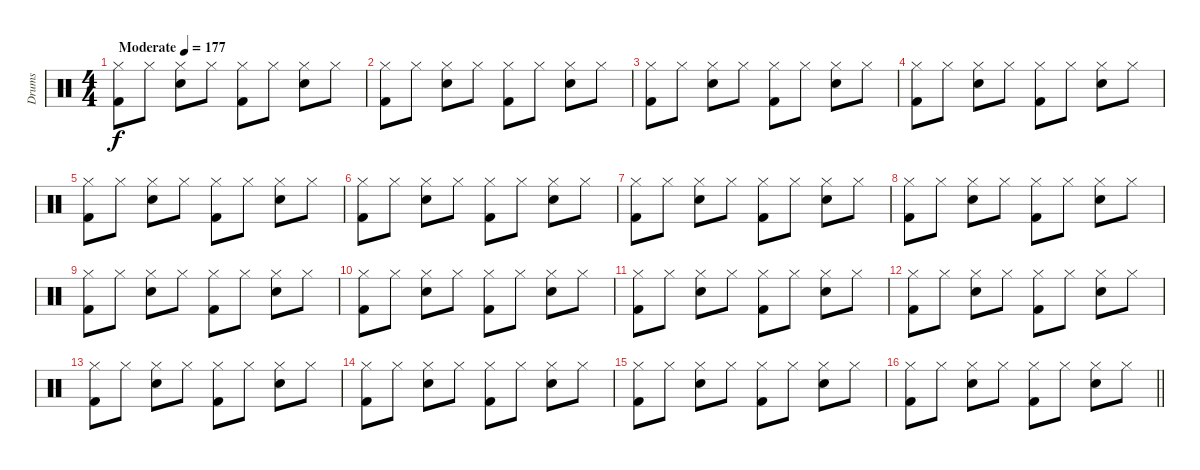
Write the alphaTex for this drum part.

\track ("Drums" "Drums") {instrument percussion}
\staff {score}
\articulation defaults
\ts (4 4)
\tempo (177 "Moderate")
\clef neutral
\ks c
("Hi-Hat (closed)" "Kick (hit) 2").8{dy f} "Hi-Hat (closed)".8 ("Hi-Hat (closed)" "Snare (hit) 2").8 "Hi-Hat (closed)".8 ("Hi-Hat (closed)" "Kick (hit) 2").8 "Hi-Hat (closed)".8 ("Hi-Hat (closed)" "Snare (hit) 2").8 "Hi-Hat (closed)".8 |
("Hi-Hat (closed)" "Kick (hit) 2").8 "Hi-Hat (closed)".8 ("Hi-Hat (closed)" "Snare (hit) 2").8 "Hi-Hat (closed)".8 ("Hi-Hat (closed)" "Kick (hit) 2").8 "Hi-Hat (closed)".8 ("Hi-Hat (closed)" "Snare (hit) 2").8 "Hi-Hat (closed)".8 |
("Hi-Hat (closed)" "Kick (hit) 2").8 "Hi-Hat (closed)".8 ("Hi-Hat (closed)" "Snare (hit) 2").8 "Hi-Hat (closed)".8 ("Hi-Hat (closed)" "Kick (hit) 2").8 "Hi-Hat (closed)".8 ("Hi-Hat (closed)" "Snare (hit) 2").8 "Hi-Hat (closed)".8 |
("Hi-Hat (closed)" "Kick (hit) 2").8 "Hi-Hat (closed)".8 ("Hi-Hat (closed)" "Snare (hit) 2").8 "Hi-Hat (closed)".8 ("Hi-Hat (closed)" "Kick (hit) 2").8 "Hi-Hat (closed)".8 ("Hi-Hat (closed)" "Snare (hit) 2").8 "Hi-Hat (closed)".8 |
("Hi-Hat (closed)" "Kick (hit) 2").8 "Hi-Hat (closed)".8 ("Hi-Hat (closed)" "Snare (hit) 2").8 "Hi-Hat (closed)".8 ("Hi-Hat (closed)" "Kick (hit) 2").8 "Hi-Hat (closed)".8 ("Hi-Hat (closed)" "Snare (hit) 2").8 "Hi-Hat (closed)".8 |
("Hi-Hat (closed)" "Kick (hit) 2").8 "Hi-Hat (closed)".8 ("Hi-Hat (closed)" "Snare (hit) 2").8 "Hi-Hat (closed)".8 ("Hi-Hat (closed)" "Kick (hit) 2").8 "Hi-Hat (closed)".8 ("Hi-Hat (closed)" "Snare (hit) 2").8 "Hi-Hat (closed)".8 |
("Hi-Hat (closed)" "Kick (hit) 2").8 "Hi-Hat (closed)".8 ("Hi-Hat (closed)" "Snare (hit) 2").8 "Hi-Hat (closed)".8 ("Hi-Hat (closed)" "Kick (hit) 2").8 "Hi-Hat (closed)".8 ("Hi-Hat (closed)" "Snare (hit) 2").8 "Hi-Hat (closed)".8 |
("Hi-Hat (closed)" "Kick (hit) 2").8 "Hi-Hat (closed)".8 ("Hi-Hat (closed)" "Snare (hit) 2").8 "Hi-Hat (closed)".8 ("Hi-Hat (closed)" "Kick (hit) 2").8 "Hi-Hat (closed)".8 ("Hi-Hat (closed)" "Snare (hit) 2").8 "Hi-Hat (closed)".8 |
("Hi-Hat (closed)" "Kick (hit) 2").8 "Hi-Hat (closed)".8 ("Hi-Hat (closed)" "Snare (hit) 2").8 "Hi-Hat (closed)".8 ("Hi-Hat (closed)" "Kick (hit) 2").8 "Hi-Hat (closed)".8 ("Hi-Hat (closed)" "Snare (hit) 2").8 "Hi-Hat (closed)".8 |
("Hi-Hat (closed)" "Kick (hit) 2").8 "Hi-Hat (closed)".8 ("Hi-Hat (closed)" "Snare (hit) 2").8 "Hi-Hat (closed)".8 ("Hi-Hat (closed)" "Kick (hit) 2").8 "Hi-Hat (closed)".8 ("Hi-Hat (closed)" "Snare (hit) 2").8 "Hi-Hat (closed)".8 |
("Hi-Hat (closed)" "Kick (hit) 2").8 "Hi-Hat (closed)".8 ("Hi-Hat (closed)" "Snare (hit) 2").8 "Hi-Hat (closed)".8 ("Hi-Hat (closed)" "Kick (hit) 2").8 "Hi-Hat (closed)".8 ("Hi-Hat (closed)" "Snare (hit) 2").8 "Hi-Hat (closed)".8 |
("Hi-Hat (closed)" "Kick (hit) 2").8 "Hi-Hat (closed)".8 ("Hi-Hat (closed)" "Snare (hit) 2").8 "Hi-Hat (closed)".8 ("Hi-Hat (closed)" "Kick (hit) 2").8 "Hi-Hat (closed)".8 ("Hi-Hat (closed)" "Snare (hit) 2").8 "Hi-Hat (closed)".8 |
("Hi-Hat (closed)" "Kick (hit) 2").8 "Hi-Hat (closed)".8 ("Hi-Hat (closed)" "Snare (hit) 2").8 "Hi-Hat (closed)".8 ("Hi-Hat (closed)" "Kick (hit) 2").8 "Hi-Hat (closed)".8 ("Hi-Hat (closed)" "Snare (hit) 2").8 "Hi-Hat (closed)".8 |
("Hi-Hat (closed)" "Kick (hit) 2").8 "Hi-Hat (closed)".8 ("Hi-Hat (closed)" "Snare (hit) 2").8 "Hi-Hat (closed)".8 ("Hi-Hat (closed)" "Kick (hit) 2").8 "Hi-Hat (closed)".8 ("Hi-Hat (closed)" "Snare (hit) 2").8 "Hi-Hat (closed)".8 |
("Hi-Hat (closed)" "Kick (hit) 2").8 "Hi-Hat (closed)".8 ("Hi-Hat (closed)" "Snare (hit) 2").8 "Hi-Hat (closed)".8 ("Hi-Hat (closed)" "Kick (hit) 2").8 "Hi-Hat (closed)".8 ("Hi-Hat (closed)" "Snare (hit) 2").8 "Hi-Hat (closed)".8 |
\barLineRight lightlight
("Hi-Hat (closed)" "Kick (hit) 2").8 "Hi-Hat (closed)".8 ("Hi-Hat (closed)" "Snare (hit) 2").8 "Hi-Hat (closed)".8 ("Hi-Hat (closed)" "Kick (hit) 2").8 "Hi-Hat (closed)".8 ("Hi-Hat (closed)" "Snare (hit) 2").8 "Hi-Hat (closed)".8
